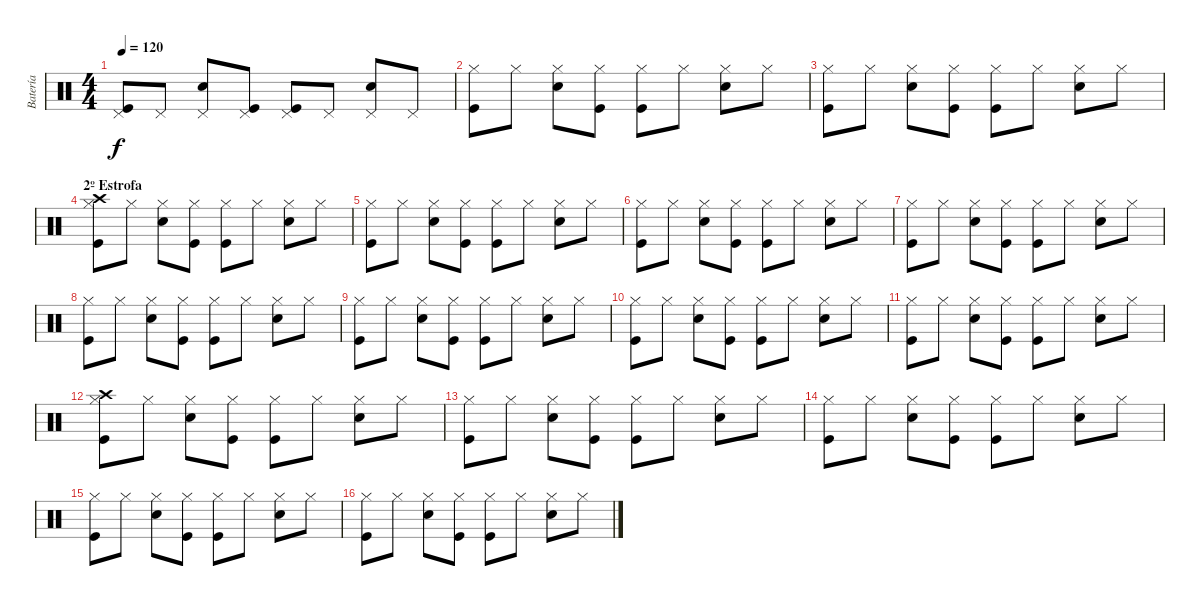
\track ("Batería" "Batería") {instrument percussion}
\staff {score}
\articulation defaults
\ts (4 4)
\tempo 120
\clef neutral
\ks c
("Pedal Hi-Hat (hit)" "Kick (hit)").8{dy f} "Pedal Hi-Hat (hit)".8 ("Pedal Hi-Hat (hit)" "Electric Snare (hit)").8 ("Pedal Hi-Hat (hit)" "Kick (hit)").8 ("Pedal Hi-Hat (hit)" "Kick (hit)").8 "Pedal Hi-Hat (hit)".8 ("Pedal Hi-Hat (hit)" "Electric Snare (hit)").8 "Pedal Hi-Hat (hit)".8 |
("Hi-Hat (closed)" "Kick (hit)").8 "Hi-Hat (closed)".8 ("Hi-Hat (closed)" "Electric Snare (hit)").8 ("Hi-Hat (closed)" "Kick (hit)").8 ("Hi-Hat (closed)" "Kick (hit)").8 "Hi-Hat (closed)".8 ("Hi-Hat (closed)" "Electric Snare (hit)").8 "Hi-Hat (closed)".8 |
("Hi-Hat (closed)" "Kick (hit)").8 "Hi-Hat (closed)".8 ("Hi-Hat (closed)" "Electric Snare (hit)").8 ("Hi-Hat (closed)" "Kick (hit)").8 ("Hi-Hat (closed)" "Kick (hit)").8 "Hi-Hat (closed)".8 ("Hi-Hat (closed)" "Electric Snare (hit)").8 "Hi-Hat (closed)".8 |
\section ("" "2º Estrofa")
("Hi-Hat (closed)" "Crash high (hit)" "Kick (hit)").8 "Hi-Hat (closed)".8 ("Hi-Hat (closed)" "Electric Snare (hit)").8 ("Hi-Hat (closed)" "Kick (hit)").8 ("Hi-Hat (closed)" "Kick (hit)").8 "Hi-Hat (closed)".8 ("Hi-Hat (closed)" "Electric Snare (hit)").8 "Hi-Hat (closed)".8 |
("Hi-Hat (closed)" "Kick (hit)").8 "Hi-Hat (closed)".8 ("Hi-Hat (closed)" "Electric Snare (hit)").8 ("Hi-Hat (closed)" "Kick (hit)").8 ("Hi-Hat (closed)" "Kick (hit)").8 "Hi-Hat (closed)".8 ("Hi-Hat (closed)" "Electric Snare (hit)").8 "Hi-Hat (closed)".8 |
("Hi-Hat (closed)" "Kick (hit)").8 "Hi-Hat (closed)".8 ("Hi-Hat (closed)" "Electric Snare (hit)").8 ("Hi-Hat (closed)" "Kick (hit)").8 ("Hi-Hat (closed)" "Kick (hit)").8 "Hi-Hat (closed)".8 ("Hi-Hat (closed)" "Electric Snare (hit)").8 "Hi-Hat (closed)".8 |
("Hi-Hat (closed)" "Kick (hit)").8 "Hi-Hat (closed)".8 ("Hi-Hat (closed)" "Electric Snare (hit)").8 ("Hi-Hat (closed)" "Kick (hit)").8 ("Hi-Hat (closed)" "Kick (hit)").8 "Hi-Hat (closed)".8 ("Hi-Hat (closed)" "Electric Snare (hit)").8 "Hi-Hat (closed)".8 |
("Hi-Hat (closed)" "Kick (hit)").8 "Hi-Hat (closed)".8 ("Hi-Hat (closed)" "Electric Snare (hit)").8 ("Hi-Hat (closed)" "Kick (hit)").8 ("Hi-Hat (closed)" "Kick (hit)").8 "Hi-Hat (closed)".8 ("Hi-Hat (closed)" "Electric Snare (hit)").8 "Hi-Hat (closed)".8 |
("Hi-Hat (closed)" "Kick (hit)").8 "Hi-Hat (closed)".8 ("Hi-Hat (closed)" "Electric Snare (hit)").8 ("Hi-Hat (closed)" "Kick (hit)").8 ("Hi-Hat (closed)" "Kick (hit)").8 "Hi-Hat (closed)".8 ("Hi-Hat (closed)" "Electric Snare (hit)").8 "Hi-Hat (closed)".8 |
("Hi-Hat (closed)" "Kick (hit)").8 "Hi-Hat (closed)".8 ("Hi-Hat (closed)" "Electric Snare (hit)").8 ("Hi-Hat (closed)" "Kick (hit)").8 ("Hi-Hat (closed)" "Kick (hit)").8 "Hi-Hat (closed)".8 ("Hi-Hat (closed)" "Electric Snare (hit)").8 "Hi-Hat (closed)".8 |
("Hi-Hat (closed)" "Kick (hit)").8 "Hi-Hat (closed)".8 ("Hi-Hat (closed)" "Electric Snare (hit)").8 ("Hi-Hat (closed)" "Kick (hit)").8 ("Hi-Hat (closed)" "Kick (hit)").8 "Hi-Hat (closed)".8 ("Hi-Hat (closed)" "Electric Snare (hit)").8 "Hi-Hat (closed)".8 |
("Hi-Hat (closed)" "Crash high (hit)" "Kick (hit)").8 "Hi-Hat (closed)".8 ("Hi-Hat (closed)" "Electric Snare (hit)").8 ("Hi-Hat (closed)" "Kick (hit)").8 ("Hi-Hat (closed)" "Kick (hit)").8 "Hi-Hat (closed)".8 ("Hi-Hat (closed)" "Electric Snare (hit)").8 "Hi-Hat (closed)".8 |
("Hi-Hat (closed)" "Kick (hit)").8 "Hi-Hat (closed)".8 ("Hi-Hat (closed)" "Electric Snare (hit)").8 ("Hi-Hat (closed)" "Kick (hit)").8 ("Hi-Hat (closed)" "Kick (hit)").8 "Hi-Hat (closed)".8 ("Hi-Hat (closed)" "Electric Snare (hit)").8 "Hi-Hat (closed)".8 |
("Hi-Hat (closed)" "Kick (hit)").8 "Hi-Hat (closed)".8 ("Hi-Hat (closed)" "Electric Snare (hit)").8 ("Hi-Hat (closed)" "Kick (hit)").8 ("Hi-Hat (closed)" "Kick (hit)").8 "Hi-Hat (closed)".8 ("Hi-Hat (closed)" "Electric Snare (hit)").8 "Hi-Hat (closed)".8 |
("Hi-Hat (closed)" "Kick (hit)").8 "Hi-Hat (closed)".8 ("Hi-Hat (closed)" "Electric Snare (hit)").8 ("Hi-Hat (closed)" "Kick (hit)").8 ("Hi-Hat (closed)" "Kick (hit)").8 "Hi-Hat (closed)".8 ("Hi-Hat (closed)" "Electric Snare (hit)").8 "Hi-Hat (closed)".8 |
("Hi-Hat (closed)" "Kick (hit)").8 "Hi-Hat (closed)".8 ("Hi-Hat (closed)" "Electric Snare (hit)").8 ("Hi-Hat (closed)" "Kick (hit)").8 ("Hi-Hat (closed)" "Kick (hit)").8 "Hi-Hat (closed)".8 ("Hi-Hat (closed)" "Electric Snare (hit)").8 "Hi-Hat (closed)".8
